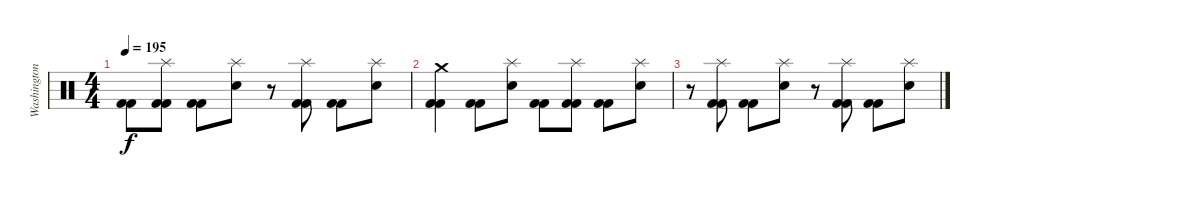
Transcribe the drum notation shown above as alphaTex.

\track ("Washington" "Washington") {solo instrument percussion}
\staff {score}
\articulation defaults
\ts (4 4)
\tempo 195
\clef neutral
\ks c
("Kick (hit) 2" "Kick (hit) 2").8{dy f} ("Splash (hit)" "Kick (hit) 2" "Kick (hit) 2").8 ("Kick (hit) 2" "Kick (hit) 2").8 ("Splash (hit)" "Electric Snare (hit)").8 r.8 ("Splash (hit)" "Kick (hit) 2" "Kick (hit) 2").8 ("Kick (hit) 2" "Kick (hit) 2").8 ("Splash (hit)" "Electric Snare (hit)").8 |
("Crash medium (hit)" "Kick (hit) 2" "Kick (hit) 2").4 ("Kick (hit) 2" "Kick (hit) 2").8 ("Splash (hit)" "Electric Snare (hit)").8 ("Kick (hit) 2" "Kick (hit) 2").8 ("Splash (hit)" "Kick (hit) 2" "Kick (hit) 2").8 ("Kick (hit) 2" "Kick (hit) 2").8 ("Splash (hit)" "Electric Snare (hit)").8 |
r.8 ("Splash (hit)" "Kick (hit) 2" "Kick (hit) 2").8 ("Kick (hit) 2" "Kick (hit) 2").8 ("Splash (hit)" "Electric Snare (hit)").8 r.8 ("Splash (hit)" "Kick (hit) 2" "Kick (hit) 2").8 ("Kick (hit) 2" "Kick (hit) 2").8 ("Splash (hit)" "Electric Snare (hit)").8
